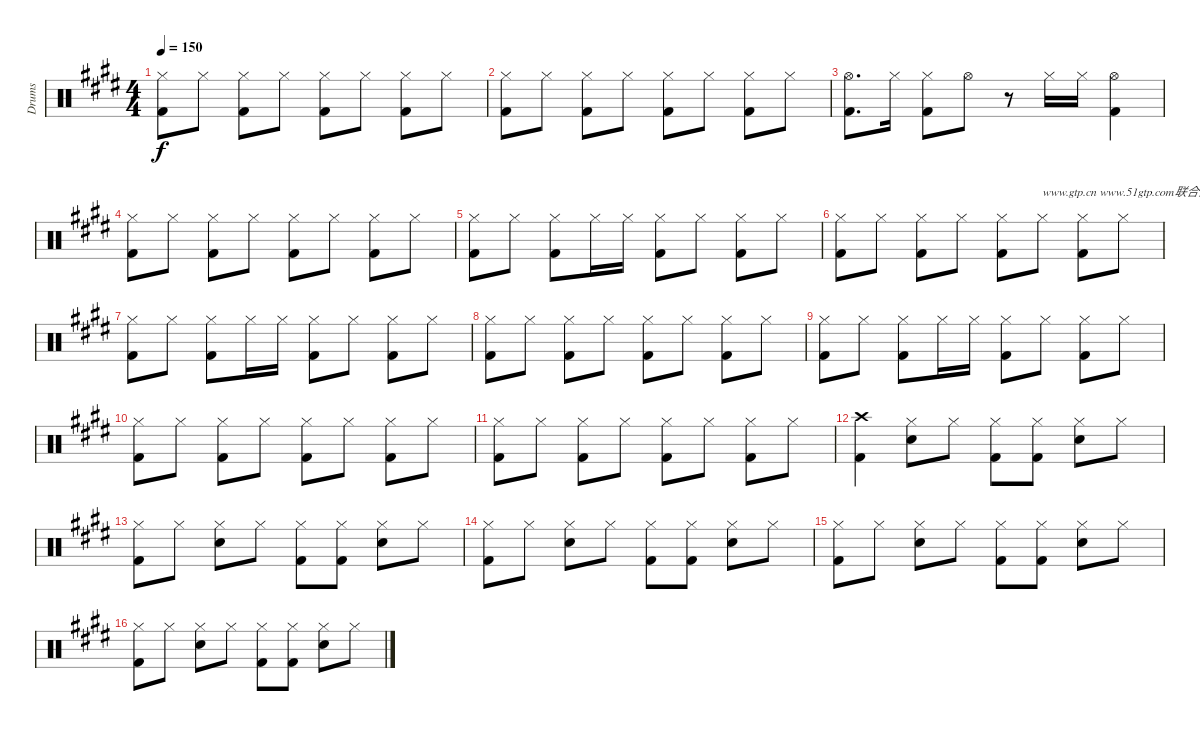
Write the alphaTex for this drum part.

\track ("Drums" "Drums") {instrument percussion}
\staff {score}
\articulation defaults
\ts (4 4)
\tempo 150
\clef neutral
\ks e
("Hi-Hat (closed)" "Kick (hit) 2").8{dy f} "Hi-Hat (closed)".8 ("Hi-Hat (closed)" "Kick (hit) 2").8 "Hi-Hat (closed)".8 ("Hi-Hat (closed)" "Kick (hit) 2").8 "Hi-Hat (closed)".8 ("Hi-Hat (closed)" "Kick (hit) 2").8 "Hi-Hat (closed)".8 |
("Hi-Hat (closed)" "Kick (hit) 2").8 "Hi-Hat (closed)".8 ("Hi-Hat (closed)" "Kick (hit) 2").8 "Hi-Hat (closed)".8 ("Hi-Hat (closed)" "Kick (hit) 2").8 "Hi-Hat (closed)".8 ("Hi-Hat (closed)" "Kick (hit) 2").8 "Hi-Hat (closed)".8 |
("Hi-Hat (open)" "Kick (hit) 2").8{d} "Hi-Hat (closed)".16 ("Hi-Hat (closed)" "Kick (hit) 2").8 "Hi-Hat (open)".8 r.8 "Hi-Hat (closed)".16 "Hi-Hat (closed)".16 ("Hi-Hat (open)" "Kick (hit) 2").4 |
("Hi-Hat (closed)" "Kick (hit) 2").8 "Hi-Hat (closed)".8 ("Hi-Hat (closed)" "Kick (hit) 2").8 "Hi-Hat (closed)".8 ("Hi-Hat (closed)" "Kick (hit) 2").8 "Hi-Hat (closed)".8 ("Hi-Hat (closed)" "Kick (hit) 2").8 "Hi-Hat (closed)".8 |
("Hi-Hat (closed)" "Kick (hit) 2").8 "Hi-Hat (closed)".8 ("Hi-Hat (closed)" "Kick (hit) 2").8 "Hi-Hat (closed)".16 "Hi-Hat (closed)".16 ("Hi-Hat (closed)" "Kick (hit) 2").8 "Hi-Hat (closed)".8 ("Hi-Hat (closed)" "Kick (hit) 2").8 "Hi-Hat (closed)".8 |
("Hi-Hat (closed)" "Kick (hit) 2").8 "Hi-Hat (closed)".8 ("Hi-Hat (closed)" "Kick (hit) 2").8 "Hi-Hat (closed)".8 ("Hi-Hat (closed)" "Kick (hit) 2").8 "Hi-Hat (closed)".8{txt "www.gtp.cn www.51gtp.com联合为您提供优秀的GTP!"} ("Hi-Hat (closed)" "Kick (hit) 2").8 "Hi-Hat (closed)".8 |
("Hi-Hat (closed)" "Kick (hit) 2").8 "Hi-Hat (closed)".8 ("Hi-Hat (closed)" "Kick (hit) 2").8 "Hi-Hat (closed)".16 "Hi-Hat (closed)".16 ("Hi-Hat (closed)" "Kick (hit) 2").8 "Hi-Hat (closed)".8 ("Hi-Hat (closed)" "Kick (hit) 2").8 "Hi-Hat (closed)".8 |
("Hi-Hat (closed)" "Kick (hit) 2").8 "Hi-Hat (closed)".8 ("Hi-Hat (closed)" "Kick (hit) 2").8 "Hi-Hat (closed)".8 ("Hi-Hat (closed)" "Kick (hit) 2").8 "Hi-Hat (closed)".8 ("Hi-Hat (closed)" "Kick (hit) 2").8 "Hi-Hat (closed)".8 |
("Hi-Hat (closed)" "Kick (hit) 2").8 "Hi-Hat (closed)".8 ("Hi-Hat (closed)" "Kick (hit) 2").8 "Hi-Hat (closed)".16 "Hi-Hat (closed)".16 ("Hi-Hat (closed)" "Kick (hit) 2").8 "Hi-Hat (closed)".8 ("Hi-Hat (closed)" "Kick (hit) 2").8 "Hi-Hat (closed)".8 |
("Hi-Hat (closed)" "Kick (hit) 2").8 "Hi-Hat (closed)".8 ("Hi-Hat (closed)" "Kick (hit) 2").8 "Hi-Hat (closed)".8 ("Hi-Hat (closed)" "Kick (hit) 2").8 "Hi-Hat (closed)".8 ("Hi-Hat (closed)" "Kick (hit) 2").8 "Hi-Hat (closed)".8 |
("Hi-Hat (closed)" "Kick (hit) 2").8 "Hi-Hat (closed)".8 ("Hi-Hat (closed)" "Kick (hit) 2").8 "Hi-Hat (closed)".8 ("Hi-Hat (closed)" "Kick (hit) 2").8 "Hi-Hat (closed)".8 ("Hi-Hat (closed)" "Kick (hit) 2").8 "Hi-Hat (closed)".8 |
("Crash high (hit)" "Kick (hit) 2").4 ("Hi-Hat (closed)" "Snare (hit) 2").8 "Hi-Hat (closed)".8 ("Hi-Hat (closed)" "Kick (hit) 2").8 ("Hi-Hat (closed)" "Kick (hit) 2").8 ("Hi-Hat (closed)" "Snare (hit) 2").8 "Hi-Hat (closed)".8 |
("Hi-Hat (closed)" "Kick (hit) 2").8 "Hi-Hat (closed)".8 ("Hi-Hat (closed)" "Snare (hit) 2").8 "Hi-Hat (closed)".8 ("Hi-Hat (closed)" "Kick (hit) 2").8 ("Hi-Hat (closed)" "Kick (hit) 2").8 ("Hi-Hat (closed)" "Snare (hit) 2").8 "Hi-Hat (closed)".8 |
("Hi-Hat (closed)" "Kick (hit) 2").8 "Hi-Hat (closed)".8 ("Hi-Hat (closed)" "Snare (hit) 2").8 "Hi-Hat (closed)".8 ("Hi-Hat (closed)" "Kick (hit) 2").8 ("Hi-Hat (closed)" "Kick (hit) 2").8 ("Hi-Hat (closed)" "Snare (hit) 2").8 "Hi-Hat (closed)".8 |
("Hi-Hat (closed)" "Kick (hit) 2").8 "Hi-Hat (closed)".8 ("Hi-Hat (closed)" "Snare (hit) 2").8 "Hi-Hat (closed)".8 ("Hi-Hat (closed)" "Kick (hit) 2").8 ("Hi-Hat (closed)" "Kick (hit) 2").8 ("Hi-Hat (closed)" "Snare (hit) 2").8 "Hi-Hat (closed)".8 |
("Hi-Hat (closed)" "Kick (hit) 2").8 "Hi-Hat (closed)".8 ("Hi-Hat (closed)" "Snare (hit) 2").8 "Hi-Hat (closed)".8 ("Hi-Hat (closed)" "Kick (hit) 2").8 ("Hi-Hat (closed)" "Kick (hit) 2").8 ("Hi-Hat (closed)" "Snare (hit) 2").8 "Hi-Hat (closed)".8
